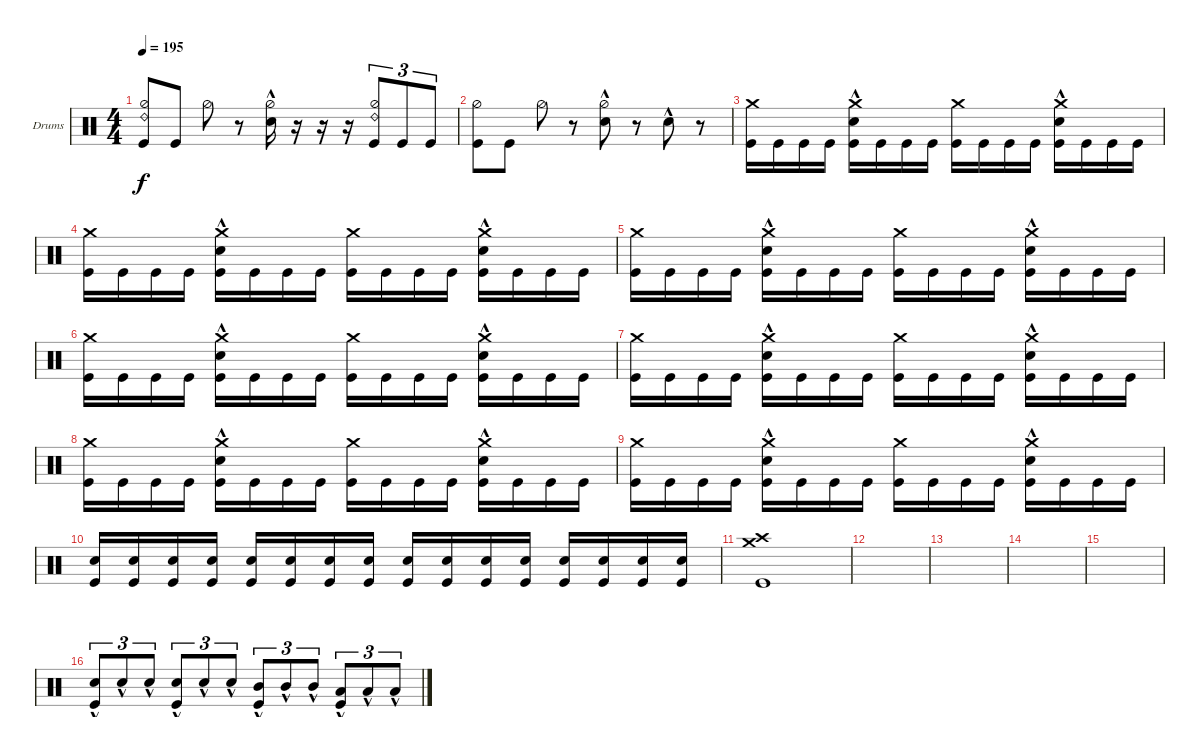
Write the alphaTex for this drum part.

\defaultSystemsLayout 4
\bracketExtendMode groupsimilarinstruments
\firstSystemTrackNameOrientation horizontal
\otherSystemsTrackNameOrientation horizontal
\track ("Drumkit" "Drums") {instrument percussion}
\staff {score}
\articulation defaults
\ts (4 4)
\tempo 195
\clef neutral
\ks c
("Kick (hit)" "Hi-Hat (half)" "Ride (bell) 2").8{dy f} "Kick (hit)".8 "Hi-Hat (half)".8 r.8 ("Hi-Hat (half)" "Snare (hit) 2"{hac}).16 r.16 r.16 r.16 ("Hi-Hat (half)" "Kick (hit)" "Ride (bell) 2").8{tu (3 2)} "Kick (hit)".8{tu (3 2)} "Kick (hit)".8{tu (3 2)} |
("Kick (hit)" "Hi-Hat (half)").8 "Kick (hit)".8 "Hi-Hat (half)".8 r.8 ("Hi-Hat (half)" "Snare (hit) 2"{hac}).8 r.8 "Snare (hit) 2"{hac}.8 r.8 |
("Kick (hit)" "Crash medium (hit)").16 "Kick (hit)".16 "Kick (hit)".16 "Kick (hit)".16 ("Kick (hit)" "Crash medium (hit)" "Snare (hit) 2"{hac}).16 "Kick (hit)".16 "Kick (hit)".16 "Kick (hit)".16 ("Kick (hit)" "Crash medium (hit)").16 "Kick (hit)".16 "Kick (hit)".16 "Kick (hit)".16 ("Kick (hit)" "Crash medium (hit)" "Snare (hit) 2"{hac}).16 "Kick (hit)".16 "Kick (hit)".16 "Kick (hit)".16 |
("Kick (hit)" "Crash medium (hit)").16 "Kick (hit)".16 "Kick (hit)".16 "Kick (hit)".16 ("Kick (hit)" "Crash medium (hit)" "Snare (hit) 2"{hac}).16 "Kick (hit)".16 "Kick (hit)".16 "Kick (hit)".16 ("Kick (hit)" "Crash medium (hit)").16 "Kick (hit)".16 "Kick (hit)".16 "Kick (hit)".16 ("Kick (hit)" "Crash medium (hit)" "Snare (hit) 2"{hac}).16 "Kick (hit)".16 "Kick (hit)".16 "Kick (hit)".16 |
("Kick (hit)" "Crash medium (hit)").16 "Kick (hit)".16 "Kick (hit)".16 "Kick (hit)".16 ("Kick (hit)" "Crash medium (hit)" "Snare (hit) 2"{hac}).16 "Kick (hit)".16 "Kick (hit)".16 "Kick (hit)".16 ("Kick (hit)" "Crash medium (hit)").16 "Kick (hit)".16 "Kick (hit)".16 "Kick (hit)".16 ("Kick (hit)" "Crash medium (hit)" "Snare (hit) 2"{hac}).16 "Kick (hit)".16 "Kick (hit)".16 "Kick (hit)".16 |
("Kick (hit)" "Crash medium (hit)").16 "Kick (hit)".16 "Kick (hit)".16 "Kick (hit)".16 ("Kick (hit)" "Crash medium (hit)" "Snare (hit) 2"{hac}).16 "Kick (hit)".16 "Kick (hit)".16 "Kick (hit)".16 ("Kick (hit)" "Crash medium (hit)").16 "Kick (hit)".16 "Kick (hit)".16 "Kick (hit)".16 ("Kick (hit)" "Crash medium (hit)" "Snare (hit) 2"{hac}).16 "Kick (hit)".16 "Kick (hit)".16 "Kick (hit)".16 |
("Kick (hit)" "Crash medium (hit)").16 "Kick (hit)".16 "Kick (hit)".16 "Kick (hit)".16 ("Kick (hit)" "Crash medium (hit)" "Snare (hit) 2"{hac}).16 "Kick (hit)".16 "Kick (hit)".16 "Kick (hit)".16 ("Kick (hit)" "Crash medium (hit)").16 "Kick (hit)".16 "Kick (hit)".16 "Kick (hit)".16 ("Kick (hit)" "Crash medium (hit)" "Snare (hit) 2"{hac}).16 "Kick (hit)".16 "Kick (hit)".16 "Kick (hit)".16 |
("Kick (hit)" "Crash medium (hit)").16 "Kick (hit)".16 "Kick (hit)".16 "Kick (hit)".16 ("Kick (hit)" "Crash medium (hit)" "Snare (hit) 2"{hac}).16 "Kick (hit)".16 "Kick (hit)".16 "Kick (hit)".16 ("Kick (hit)" "Crash medium (hit)").16 "Kick (hit)".16 "Kick (hit)".16 "Kick (hit)".16 ("Kick (hit)" "Crash medium (hit)" "Snare (hit) 2"{hac}).16 "Kick (hit)".16 "Kick (hit)".16 "Kick (hit)".16 |
("Kick (hit)" "Crash medium (hit)").16 "Kick (hit)".16 "Kick (hit)".16 "Kick (hit)".16 ("Kick (hit)" "Crash medium (hit)" "Snare (hit) 2"{hac}).16 "Kick (hit)".16 "Kick (hit)".16 "Kick (hit)".16 ("Kick (hit)" "Crash medium (hit)").16 "Kick (hit)".16 "Kick (hit)".16 "Kick (hit)".16 ("Kick (hit)" "Crash medium (hit)" "Snare (hit) 2"{hac}).16 "Kick (hit)".16 "Kick (hit)".16 "Kick (hit)".16 |
("Snare (hit) 2" "Kick (hit)").16 ("Snare (hit) 2" "Kick (hit)").16 ("Snare (hit) 2" "Kick (hit)").16 ("Snare (hit) 2" "Kick (hit)").16 ("Snare (hit) 2" "Kick (hit)").16 ("Snare (hit) 2" "Kick (hit)").16 ("Snare (hit) 2" "Kick (hit)").16 ("Snare (hit) 2" "Kick (hit)").16 ("Snare (hit) 2" "Kick (hit)").16 ("Snare (hit) 2" "Kick (hit)").16 ("Snare (hit) 2" "Kick (hit)").16 ("Snare (hit) 2" "Kick (hit)").16 ("Snare (hit) 2" "Kick (hit)").16 ("Snare (hit) 2" "Kick (hit)").16 ("Snare (hit) 2" "Kick (hit)").16 ("Snare (hit) 2" "Kick (hit)").16 |
("Kick (hit)" "Crash medium (hit)" "Crash high (hit)").1 |
|
|
|
|
("Kick (hit)"{hac} "Snare (hit) 2"{hac}).8{tu (3 2)} "Snare (hit) 2"{hac}.8{tu (3 2)} "Snare (hit) 2"{hac}.8{tu (3 2)} ("Kick (hit)"{hac} "Snare (hit) 2"{hac}).8{tu (3 2)} "Snare (hit) 2"{hac}.8{tu (3 2)} "Snare (hit) 2"{hac}.8{tu (3 2)} ("Kick (hit)"{hac} "Mid Tom (hit)"{hac}).8{tu (3 2)} "Mid Tom (hit)"{hac}.8{tu (3 2)} "Mid Tom (hit)"{hac}.8{tu (3 2)} ("Kick (hit)"{hac} "Low Tom (hit)"{hac}).8{tu (3 2)} "Low Tom (hit)"{hac}.8{tu (3 2)} "Low Tom (hit)"{hac}.8{tu (3 2)}
